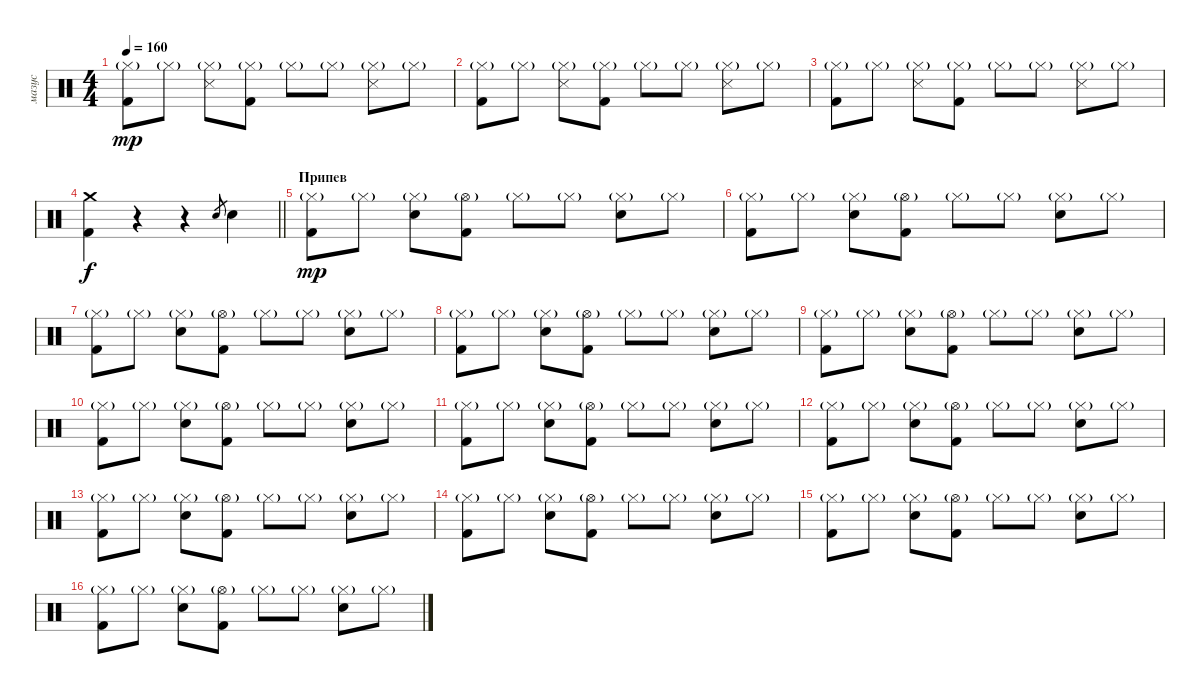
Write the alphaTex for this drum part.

\track ("мазус" "мазус") {instrument percussion}
\staff {score}
\articulation defaults
\ts (4 4)
\tempo 160
\clef neutral
\ks c
("Kick (hit) 2" "Hi-Hat (closed)"{g}).8{dy mp} "Hi-Hat (closed)"{g}.8 ("Snare (side stick) 3" "Hi-Hat (closed)"{g}).8 ("Kick (hit) 2" "Hi-Hat (closed)"{g}).8 "Hi-Hat (closed)"{g}.8 "Hi-Hat (closed)"{g}.8 ("Snare (side stick) 3" "Hi-Hat (closed)"{g}).8 "Hi-Hat (closed)"{g}.8 |
("Kick (hit) 2" "Hi-Hat (closed)"{g}).8 "Hi-Hat (closed)"{g}.8 ("Snare (side stick) 3" "Hi-Hat (closed)"{g}).8 ("Kick (hit) 2" "Hi-Hat (closed)"{g}).8 "Hi-Hat (closed)"{g}.8 "Hi-Hat (closed)"{g}.8 ("Snare (side stick) 3" "Hi-Hat (closed)"{g}).8 "Hi-Hat (closed)"{g}.8 |
("Kick (hit) 2" "Hi-Hat (closed)"{g}).8 "Hi-Hat (closed)"{g}.8 ("Snare (side stick) 3" "Hi-Hat (closed)"{g}).8 ("Kick (hit) 2" "Hi-Hat (closed)"{g}).8 "Hi-Hat (closed)"{g}.8 "Hi-Hat (closed)"{g}.8 ("Snare (side stick) 3" "Hi-Hat (closed)"{g}).8 "Hi-Hat (closed)"{g}.8 |
\barLineRight lightlight
("Kick (hit) 2" "Crash medium (hit)").4{dy f} r.4 r.4 "Electric Snare (hit)".8{gr} "Electric Snare (hit)".4 |
\section ("" "Припев")
("Kick (hit) 2" "Hi-Hat (closed)"{g}).8{dy mp} "Hi-Hat (closed)"{g}.8 ("Electric Snare (hit)" "Hi-Hat (closed)"{g}).8 ("Kick (hit) 2" "Hi-Hat (open)"{g}).8 "Hi-Hat (closed)"{g}.8 "Hi-Hat (closed)"{g}.8 ("Electric Snare (hit)" "Hi-Hat (closed)"{g}).8 "Hi-Hat (closed)"{g}.8 |
("Kick (hit) 2" "Hi-Hat (closed)"{g}).8 "Hi-Hat (closed)"{g}.8 ("Electric Snare (hit)" "Hi-Hat (closed)"{g}).8 ("Kick (hit) 2" "Hi-Hat (open)"{g}).8 "Hi-Hat (closed)"{g}.8 "Hi-Hat (closed)"{g}.8 ("Electric Snare (hit)" "Hi-Hat (closed)"{g}).8 "Hi-Hat (closed)"{g}.8 |
("Kick (hit) 2" "Hi-Hat (closed)"{g}).8 "Hi-Hat (closed)"{g}.8 ("Electric Snare (hit)" "Hi-Hat (closed)"{g}).8 ("Kick (hit) 2" "Hi-Hat (open)"{g}).8 "Hi-Hat (closed)"{g}.8 "Hi-Hat (closed)"{g}.8 ("Electric Snare (hit)" "Hi-Hat (closed)"{g}).8 "Hi-Hat (closed)"{g}.8 |
("Kick (hit) 2" "Hi-Hat (closed)"{g}).8 "Hi-Hat (closed)"{g}.8 ("Electric Snare (hit)" "Hi-Hat (closed)"{g}).8 ("Kick (hit) 2" "Hi-Hat (open)"{g}).8 "Hi-Hat (closed)"{g}.8 "Hi-Hat (closed)"{g}.8 ("Electric Snare (hit)" "Hi-Hat (closed)"{g}).8 "Hi-Hat (closed)"{g}.8 |
("Kick (hit) 2" "Hi-Hat (closed)"{g}).8 "Hi-Hat (closed)"{g}.8 ("Electric Snare (hit)" "Hi-Hat (closed)"{g}).8 ("Kick (hit) 2" "Hi-Hat (open)"{g}).8 "Hi-Hat (closed)"{g}.8 "Hi-Hat (closed)"{g}.8 ("Electric Snare (hit)" "Hi-Hat (closed)"{g}).8 "Hi-Hat (closed)"{g}.8 |
("Kick (hit) 2" "Hi-Hat (closed)"{g}).8 "Hi-Hat (closed)"{g}.8 ("Electric Snare (hit)" "Hi-Hat (closed)"{g}).8 ("Kick (hit) 2" "Hi-Hat (open)"{g}).8 "Hi-Hat (closed)"{g}.8 "Hi-Hat (closed)"{g}.8 ("Electric Snare (hit)" "Hi-Hat (closed)"{g}).8 "Hi-Hat (closed)"{g}.8 |
("Kick (hit) 2" "Hi-Hat (closed)"{g}).8 "Hi-Hat (closed)"{g}.8 ("Electric Snare (hit)" "Hi-Hat (closed)"{g}).8 ("Kick (hit) 2" "Hi-Hat (open)"{g}).8 "Hi-Hat (closed)"{g}.8 "Hi-Hat (closed)"{g}.8 ("Electric Snare (hit)" "Hi-Hat (closed)"{g}).8 "Hi-Hat (closed)"{g}.8 |
("Kick (hit) 2" "Hi-Hat (closed)"{g}).8 "Hi-Hat (closed)"{g}.8 ("Electric Snare (hit)" "Hi-Hat (closed)"{g}).8 ("Kick (hit) 2" "Hi-Hat (open)"{g}).8 "Hi-Hat (closed)"{g}.8 "Hi-Hat (closed)"{g}.8 ("Electric Snare (hit)" "Hi-Hat (closed)"{g}).8 "Hi-Hat (closed)"{g}.8 |
("Kick (hit) 2" "Hi-Hat (closed)"{g}).8 "Hi-Hat (closed)"{g}.8 ("Electric Snare (hit)" "Hi-Hat (closed)"{g}).8 ("Kick (hit) 2" "Hi-Hat (open)"{g}).8 "Hi-Hat (closed)"{g}.8 "Hi-Hat (closed)"{g}.8 ("Electric Snare (hit)" "Hi-Hat (closed)"{g}).8 "Hi-Hat (closed)"{g}.8 |
("Kick (hit) 2" "Hi-Hat (closed)"{g}).8 "Hi-Hat (closed)"{g}.8 ("Electric Snare (hit)" "Hi-Hat (closed)"{g}).8 ("Kick (hit) 2" "Hi-Hat (open)"{g}).8 "Hi-Hat (closed)"{g}.8 "Hi-Hat (closed)"{g}.8 ("Electric Snare (hit)" "Hi-Hat (closed)"{g}).8 "Hi-Hat (closed)"{g}.8 |
("Kick (hit) 2" "Hi-Hat (closed)"{g}).8 "Hi-Hat (closed)"{g}.8 ("Electric Snare (hit)" "Hi-Hat (closed)"{g}).8 ("Kick (hit) 2" "Hi-Hat (open)"{g}).8 "Hi-Hat (closed)"{g}.8 "Hi-Hat (closed)"{g}.8 ("Electric Snare (hit)" "Hi-Hat (closed)"{g}).8 "Hi-Hat (closed)"{g}.8 |
("Kick (hit) 2" "Hi-Hat (closed)"{g}).8 "Hi-Hat (closed)"{g}.8 ("Electric Snare (hit)" "Hi-Hat (closed)"{g}).8 ("Kick (hit) 2" "Hi-Hat (open)"{g}).8 "Hi-Hat (closed)"{g}.8 "Hi-Hat (closed)"{g}.8 ("Electric Snare (hit)" "Hi-Hat (closed)"{g}).8 "Hi-Hat (closed)"{g}.8
